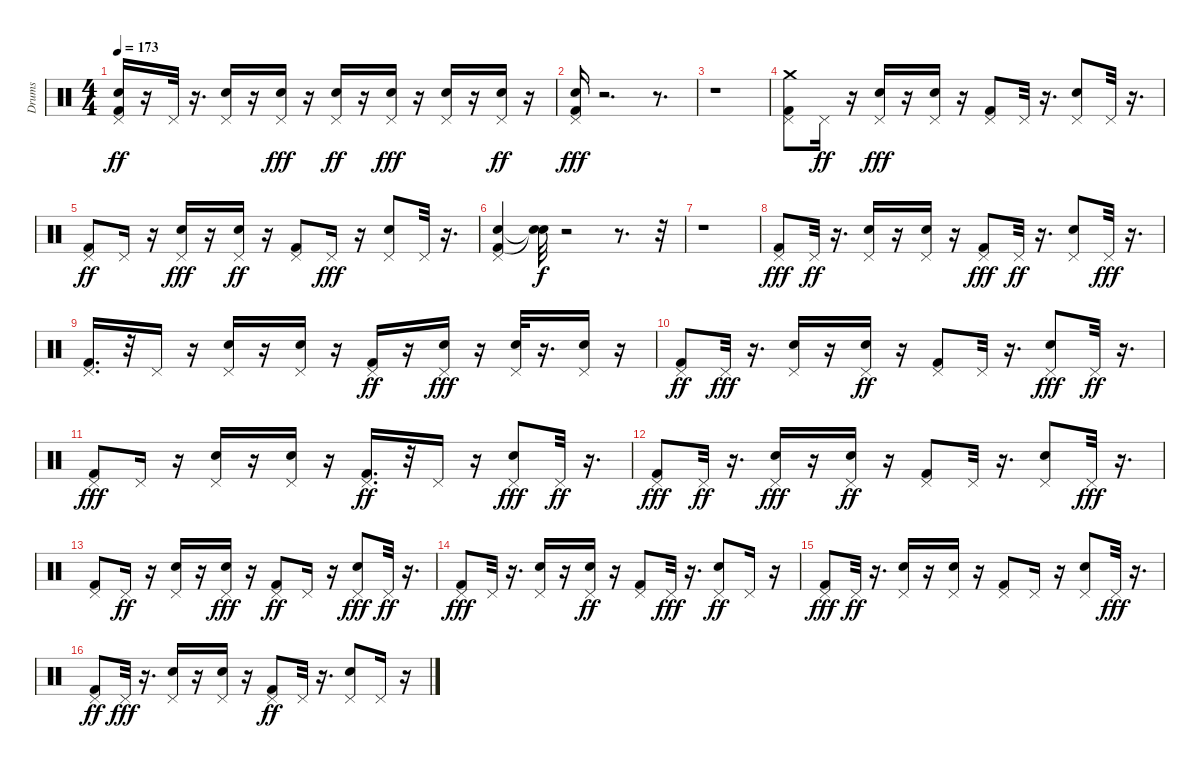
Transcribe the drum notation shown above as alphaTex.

\track ("Drums" "Drums") {instrument percussion}
\staff {score}
\articulation defaults
\ts (4 4)
\tempo 173
\clef neutral
\ks c
("Snare (hit) 2" "Kick (hit) 2" "Pedal Hi-Hat (hit)").16{dy ff} r.16 "Pedal Hi-Hat (hit)".32 r.16{d} ("Snare (hit) 2" "Pedal Hi-Hat (hit)").16 r.16 ("Snare (hit) 2" "Pedal Hi-Hat (hit)").16{dy fff} r.16 ("Snare (hit) 2" "Pedal Hi-Hat (hit)").16{dy ff} r.16 ("Snare (hit) 2" "Pedal Hi-Hat (hit)").16{dy fff} r.16 ("Snare (hit) 2" "Pedal Hi-Hat (hit)").16 r.16 ("Snare (hit) 2" "Pedal Hi-Hat (hit)").16{dy ff} r.16 |
("Snare (hit) 2" "Kick (hit) 2" "Pedal Hi-Hat (hit)").16{dy fff} r.2{d} r.8{d} |
r.1 |
("Kick (hit) 2" "Pedal Hi-Hat (hit)" "Crash medium (hit)").8 "Pedal Hi-Hat (hit)".16{dy ff} r.16 ("Snare (hit) 2" "Pedal Hi-Hat (hit)").16{dy fff} r.16 ("Snare (hit) 2" "Pedal Hi-Hat (hit)").16 r.16 ("Kick (hit) 2" "Pedal Hi-Hat (hit)").8 "Pedal Hi-Hat (hit)".32 r.16{d} ("Snare (hit) 2" "Pedal Hi-Hat (hit)").8 "Pedal Hi-Hat (hit)".32 r.16{d} |
("Kick (hit) 2" "Pedal Hi-Hat (hit)").8{dy ff} "Pedal Hi-Hat (hit)".16 r.16 ("Snare (hit) 2" "Pedal Hi-Hat (hit)").16{dy fff} r.16 ("Snare (hit) 2" "Pedal Hi-Hat (hit)").16{dy ff} r.16 ("Kick (hit) 2" "Pedal Hi-Hat (hit)").8 "Pedal Hi-Hat (hit)".16{dy fff} r.16 ("Snare (hit) 2" "Pedal Hi-Hat (hit)").8 "Pedal Hi-Hat (hit)".32 r.16{d} |
("Snare (hit) 2" "Kick (hit) 2" "Pedal Hi-Hat (hit)").4 ("Snare (hit)"{t} "Snare (hit)"{t}).32{dy f} r.2 r.8{d} r.32 |
r.1 |
("Kick (hit) 2" "Pedal Hi-Hat (hit)").8{dy fff} "Pedal Hi-Hat (hit)".32{dy ff} r.16{d} ("Snare (hit) 2" "Pedal Hi-Hat (hit)").16 r.16 ("Snare (hit) 2" "Pedal Hi-Hat (hit)").16 r.16 ("Kick (hit) 2" "Pedal Hi-Hat (hit)").8{dy fff} "Pedal Hi-Hat (hit)".32{dy ff} r.16{d} ("Snare (hit) 2" "Pedal Hi-Hat (hit)").8 "Pedal Hi-Hat (hit)".32{dy fff} r.16{d} |
("Kick (hit) 2" "Pedal Hi-Hat (hit)").16{d} r.32 "Pedal Hi-Hat (hit)".16 r.16 ("Snare (hit) 2" "Pedal Hi-Hat (hit)").16 r.16 ("Snare (hit) 2" "Pedal Hi-Hat (hit)").16 r.16 ("Kick (hit) 2" "Pedal Hi-Hat (hit)").16{dy ff} r.16 ("Snare (hit) 2" "Pedal Hi-Hat (hit)").16{dy fff} r.16 ("Snare (hit) 2" "Pedal Hi-Hat (hit)").32 r.16{d} ("Snare (hit) 2" "Pedal Hi-Hat (hit)").16 r.16 |
("Kick (hit) 2" "Pedal Hi-Hat (hit)").8{dy ff} "Pedal Hi-Hat (hit)".32{dy fff} r.16{d} ("Snare (hit) 2" "Pedal Hi-Hat (hit)").16 r.16 ("Snare (hit) 2" "Pedal Hi-Hat (hit)").16{dy ff} r.16 ("Kick (hit) 2" "Pedal Hi-Hat (hit)").8 "Pedal Hi-Hat (hit)".32 r.16{d} ("Snare (hit) 2" "Pedal Hi-Hat (hit)").8{dy fff} "Pedal Hi-Hat (hit)".32{dy ff} r.16{d} |
("Kick (hit) 2" "Pedal Hi-Hat (hit)").8{dy fff} "Pedal Hi-Hat (hit)".16 r.16 ("Snare (hit) 2" "Pedal Hi-Hat (hit)").16 r.16 ("Snare (hit) 2" "Pedal Hi-Hat (hit)").16 r.16 ("Kick (hit) 2" "Pedal Hi-Hat (hit)").16{d dy ff} r.32 "Pedal Hi-Hat (hit)".16 r.16 ("Snare (hit) 2" "Pedal Hi-Hat (hit)").8{dy fff} "Pedal Hi-Hat (hit)".32{dy ff} r.16{d} |
("Kick (hit) 2" "Pedal Hi-Hat (hit)").8{dy fff} "Pedal Hi-Hat (hit)".32{dy ff} r.16{d} ("Snare (hit) 2" "Pedal Hi-Hat (hit)").16{dy fff} r.16 ("Snare (hit) 2" "Pedal Hi-Hat (hit)").16{dy ff} r.16 ("Kick (hit) 2" "Pedal Hi-Hat (hit)").8 "Pedal Hi-Hat (hit)".32 r.16{d} ("Snare (hit) 2" "Pedal Hi-Hat (hit)").8 "Pedal Hi-Hat (hit)".32{dy fff} r.16{d} |
("Kick (hit) 2" "Pedal Hi-Hat (hit)").8 "Pedal Hi-Hat (hit)".16{dy ff} r.16 ("Snare (hit) 2" "Pedal Hi-Hat (hit)").16 r.16 ("Snare (hit) 2" "Pedal Hi-Hat (hit)").16{dy fff} r.16 ("Kick (hit) 2" "Pedal Hi-Hat (hit)").8{dy ff} "Pedal Hi-Hat (hit)".16 r.16 ("Snare (hit) 2" "Pedal Hi-Hat (hit)").8{dy fff} "Pedal Hi-Hat (hit)".32{dy ff} r.16{d} |
("Kick (hit) 2" "Pedal Hi-Hat (hit)").8{dy fff} "Pedal Hi-Hat (hit)".32 r.16{d} ("Snare (hit) 2" "Pedal Hi-Hat (hit)").16 r.16 ("Snare (hit) 2" "Pedal Hi-Hat (hit)").16{dy ff} r.16 ("Kick (hit) 2" "Pedal Hi-Hat (hit)").8 "Pedal Hi-Hat (hit)".32{dy fff} r.16{d} ("Snare (hit) 2" "Pedal Hi-Hat (hit)").8{dy ff} "Pedal Hi-Hat (hit)".16 r.16 |
("Kick (hit) 2" "Pedal Hi-Hat (hit)").8{dy fff} "Pedal Hi-Hat (hit)".32{dy ff} r.16{d} ("Snare (hit) 2" "Pedal Hi-Hat (hit)").16 r.16 ("Snare (hit) 2" "Pedal Hi-Hat (hit)").16 r.16 ("Kick (hit) 2" "Pedal Hi-Hat (hit)").8 "Pedal Hi-Hat (hit)".16 r.16 ("Snare (hit) 2" "Pedal Hi-Hat (hit)").8 "Pedal Hi-Hat (hit)".32{dy fff} r.16{d} |
("Kick (hit) 2" "Pedal Hi-Hat (hit)").8{dy ff} "Pedal Hi-Hat (hit)".32{dy fff} r.16{d} ("Snare (hit) 2" "Pedal Hi-Hat (hit)").16 r.16 ("Snare (hit) 2" "Pedal Hi-Hat (hit)").16 r.16 ("Kick (hit) 2" "Pedal Hi-Hat (hit)").8{dy ff} "Pedal Hi-Hat (hit)".32 r.16{d} ("Snare (hit) 2" "Pedal Hi-Hat (hit)").8 "Pedal Hi-Hat (hit)".16 r.16
